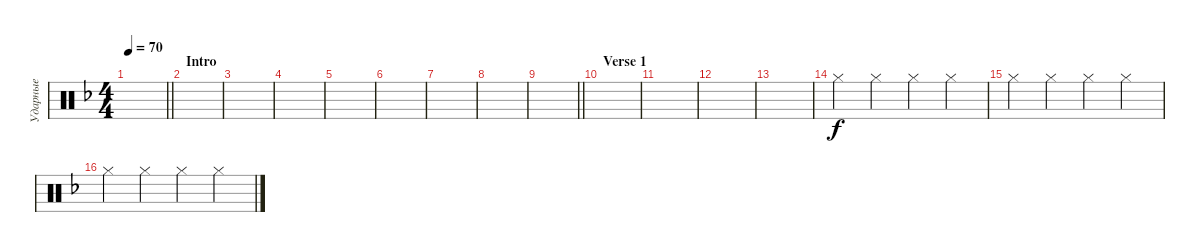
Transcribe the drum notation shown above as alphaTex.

\track ("Ударные" "Ударные") {instrument percussion}
\staff {score}
\articulation defaults
\ts (4 4)
\tempo 70
\clef neutral
\barLineRight lightlight
\ks dminor
|
\section ("" "Intro")
|
|
|
|
|
|
|
\barLineRight lightlight
|
\section ("" "Verse 1")
|
|
|
|
"Hi-Hat (closed)".4 "Hi-Hat (closed)".4 "Hi-Hat (closed)".4 "Hi-Hat (closed)".4 |
"Hi-Hat (closed)".4 "Hi-Hat (closed)".4 "Hi-Hat (closed)".4 "Hi-Hat (closed)".4 |
"Hi-Hat (closed)".4 "Hi-Hat (closed)".4 "Hi-Hat (closed)".4 "Hi-Hat (closed)".4
